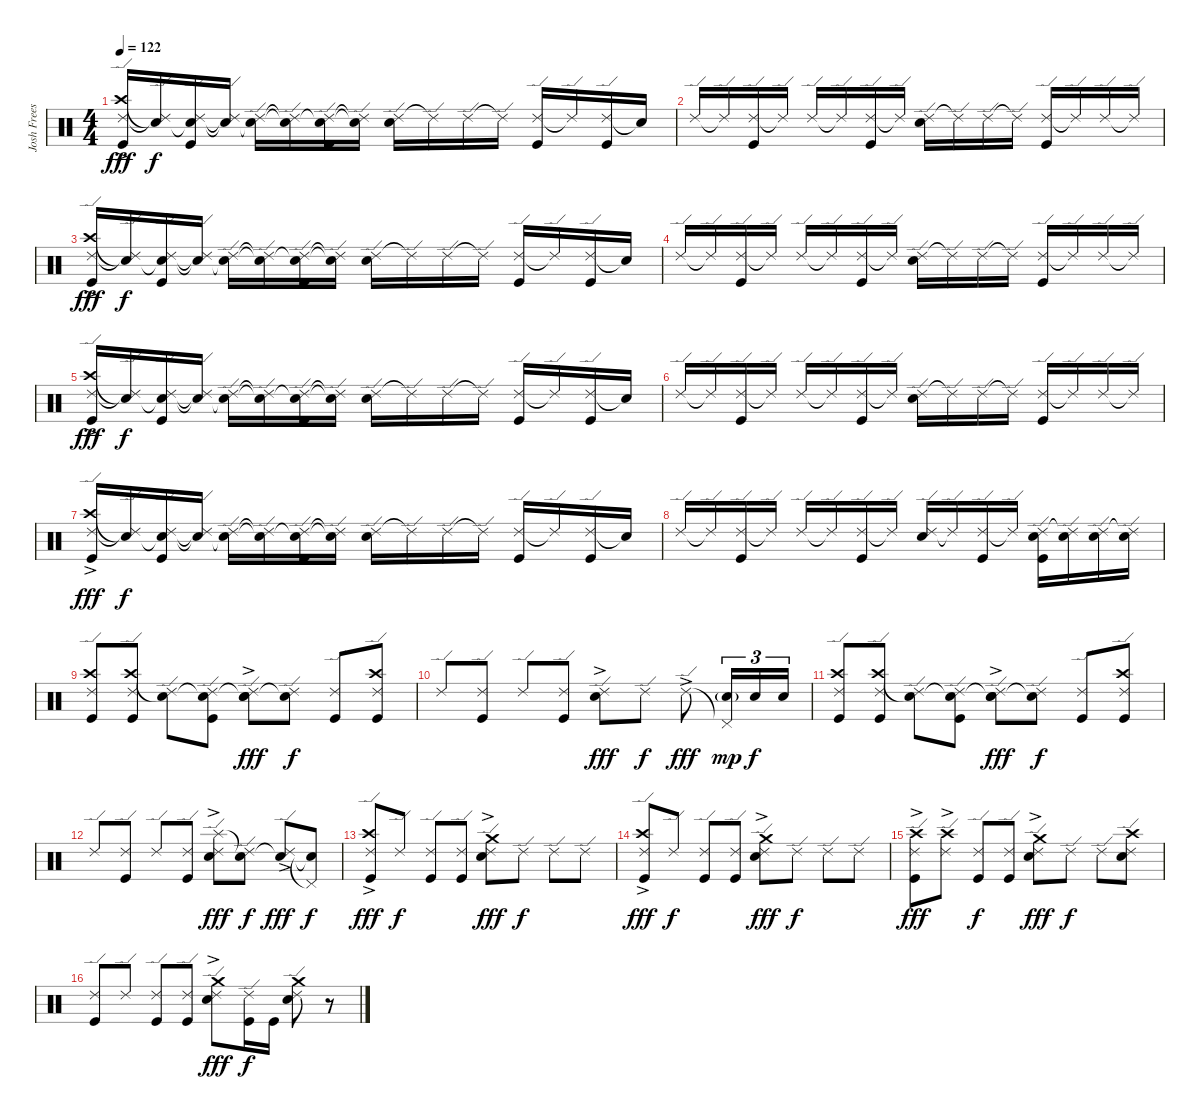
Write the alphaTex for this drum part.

\track ("Josh Freese" "Josh Frees") {instrument percussion}
\staff {score}
\articulation defaults
\ts (4 4)
\tempo 122
\clef neutral
\ks c
("Ride (edge) 2" "Crash high (hit)"{ac} "Kick (hit)").16{dy fff balance 8} ("Ride (edge) 2"{t} "Snare (hit)"{t}).16{dy f} ("Ride (edge) 2" "Snare (hit)"{t} "Kick (hit)").16 ("Ride (edge) 2"{t} "Snare (hit)"{t}).16 ("Ride (edge) 2" "Snare (hit)"{t}).16 ("Ride (edge) 2"{t} "Snare (hit)"{t}).16 ("Ride (edge) 2" "Snare (hit)"{t} "Kick (hit)").16 ("Ride (edge) 2"{t} "Snare (hit)"{t}).16 ("Ride (edge) 2" "Electric Snare (hit)").16 "Ride (edge) 2"{t}.16 "Ride (edge) 2".16 "Ride (edge) 2"{t}.16 ("Ride (edge) 2" "Kick (hit)").16 "Ride (edge) 2"{t}.16 ("Ride (edge) 2" "Kick (hit)").16 "Snare (hit)"{t}.16 |
"Ride (edge) 2".16 "Ride (edge) 2"{t}.16 ("Ride (edge) 2" "Kick (hit)").16 "Ride (edge) 2"{t}.16 "Ride (edge) 2".16 "Ride (edge) 2"{t}.16 ("Ride (edge) 2" "Kick (hit)").16 "Ride (edge) 2"{t}.16 ("Ride (edge) 2" "Electric Snare (hit)").16 "Ride (edge) 2"{t}.16 "Ride (edge) 2".16 "Ride (edge) 2"{t}.16 ("Ride (edge) 2" "Kick (hit)").16 "Ride (edge) 2"{t}.16 "Ride (edge) 2".16 "Ride (edge) 2"{t}.16 |
("Ride (edge) 2" "Crash high (hit)"{ac} "Kick (hit)").16{dy fff balance 8} ("Ride (edge) 2"{t} "Snare (hit)"{t}).16{dy f} ("Ride (edge) 2" "Snare (hit)"{t} "Kick (hit)").16 ("Ride (edge) 2"{t} "Snare (hit)"{t}).16 ("Ride (edge) 2" "Snare (hit)"{t}).16 ("Ride (edge) 2"{t} "Snare (hit)"{t}).16 ("Ride (edge) 2" "Snare (hit)"{t} "Kick (hit)").16 ("Ride (edge) 2"{t} "Snare (hit)"{t}).16 ("Ride (edge) 2" "Electric Snare (hit)").16 "Ride (edge) 2"{t}.16 "Ride (edge) 2".16 "Ride (edge) 2"{t}.16 ("Ride (edge) 2" "Kick (hit)").16 "Ride (edge) 2"{t}.16 ("Ride (edge) 2" "Kick (hit)").16 "Snare (hit)"{t}.16 |
"Ride (edge) 2".16 "Ride (edge) 2"{t}.16 ("Ride (edge) 2" "Kick (hit)").16 "Ride (edge) 2"{t}.16 "Ride (edge) 2".16 "Ride (edge) 2"{t}.16 ("Ride (edge) 2" "Kick (hit)").16 "Ride (edge) 2"{t}.16 ("Ride (edge) 2" "Electric Snare (hit)").16 "Ride (edge) 2"{t}.16 "Ride (edge) 2".16 "Ride (edge) 2"{t}.16 ("Ride (edge) 2" "Kick (hit)").16 "Ride (edge) 2"{t}.16 "Ride (edge) 2".16 "Ride (edge) 2"{t}.16 |
("Ride (edge) 2" "Crash high (hit)"{ac} "Kick (hit)").16{dy fff balance 8} ("Ride (edge) 2"{t} "Snare (hit)"{t}).16{dy f} ("Ride (edge) 2" "Snare (hit)"{t} "Kick (hit)").16 ("Ride (edge) 2"{t} "Snare (hit)"{t}).16 ("Ride (edge) 2" "Snare (hit)"{t}).16 ("Ride (edge) 2"{t} "Snare (hit)"{t}).16 ("Ride (edge) 2" "Snare (hit)"{t} "Kick (hit)").16 ("Ride (edge) 2"{t} "Snare (hit)"{t}).16 ("Ride (edge) 2" "Electric Snare (hit)").16 "Ride (edge) 2"{t}.16 "Ride (edge) 2".16 "Ride (edge) 2"{t}.16 ("Ride (edge) 2" "Kick (hit)").16 "Ride (edge) 2"{t}.16 ("Ride (edge) 2" "Kick (hit)").16 "Snare (hit)"{t}.16 |
"Ride (edge) 2".16 "Ride (edge) 2"{t}.16 ("Ride (edge) 2" "Kick (hit)").16 "Ride (edge) 2"{t}.16 "Ride (edge) 2".16 "Ride (edge) 2"{t}.16 ("Ride (edge) 2" "Kick (hit)").16 "Ride (edge) 2"{t}.16 ("Ride (edge) 2" "Electric Snare (hit)").16 "Ride (edge) 2"{t}.16 "Ride (edge) 2".16 "Ride (edge) 2"{t}.16 ("Ride (edge) 2" "Kick (hit)").16 "Ride (edge) 2"{t}.16 "Ride (edge) 2".16 "Ride (edge) 2"{t}.16 |
("Ride (edge) 2" "Crash high (hit)"{ac} "Kick (hit)").16{dy fff balance 8} ("Ride (edge) 2"{t} "Snare (hit)"{t}).16{dy f} ("Ride (edge) 2" "Snare (hit)"{t} "Kick (hit)").16 ("Ride (edge) 2"{t} "Snare (hit)"{t}).16 ("Ride (edge) 2" "Snare (hit)"{t}).16 ("Ride (edge) 2"{t} "Snare (hit)"{t}).16 ("Ride (edge) 2" "Snare (hit)"{t} "Kick (hit)").16 ("Ride (edge) 2"{t} "Snare (hit)"{t}).16 ("Ride (edge) 2" "Electric Snare (hit)").16 "Ride (edge) 2"{t}.16 "Ride (edge) 2".16 "Ride (edge) 2"{t}.16 ("Ride (edge) 2" "Kick (hit)").16 "Ride (edge) 2"{t}.16 ("Ride (edge) 2" "Kick (hit)").16 "Snare (hit)"{t}.16 |
"Ride (edge) 2".16 "Ride (edge) 2"{t}.16 ("Ride (edge) 2" "Kick (hit)").16 "Ride (edge) 2"{t}.16 "Ride (edge) 2".16 "Ride (edge) 2"{t}.16 ("Ride (edge) 2" "Kick (hit)").16 "Ride (edge) 2"{t}.16 ("Ride (edge) 2" "Electric Snare (hit)").16 "Ride (edge) 2"{t}.16 ("Ride (edge) 2" "Kick (hit)").16 "Ride (edge) 2"{t}.16 ("Ride (edge) 2" "Electric Snare (hit)" "Kick (hit)").16 ("Ride (edge) 2"{t} "Electric Snare (hit)").16 ("Ride (edge) 2" "Electric Snare (hit)").16 ("Ride (edge) 2"{t} "Electric Snare (hit)").16 |
("Ride (edge) 2" "Crash high (hit)" "Kick (hit)").8 ("Ride (edge) 2" "Crash high (hit)" "Kick (hit)").8 ("Ride (edge) 2" "Snare (hit)"{t}).8 ("Ride (edge) 2" "Snare (hit)"{t} "Kick (hit)").8 ("Ride (edge) 2" "Snare (hit)"{t} "Electric Snare (hit)"{ac}).8{dy fff} ("Ride (edge) 2" "Snare (hit)"{t}).8{dy f} ("Ride (edge) 2" "Kick (hit)").8 ("Ride (edge) 2" "Crash high (hit)" "Kick (hit)").8 |
"Ride (edge) 2".8 ("Ride (edge) 2" "Kick (hit)").8 "Ride (edge) 2".8 ("Ride (edge) 2" "Kick (hit)").8 ("Ride (edge) 2" "Electric Snare (hit)"{ac}).8{dy fff} "Ride (edge) 2".8{dy f} "Ride (edge) 2"{ac}.8{dy fff} ("Pedal Hi-Hat (hit)"{t} "Electric Snare (hit)"{g}).16{tu (3 2) dy mp} "Electric Snare (hit)".16{tu (3 2) dy f} "Electric Snare (hit)".16{tu (3 2)} |
("Ride (edge) 2" "Crash high (hit)" "Kick (hit)").8 ("Ride (edge) 2" "Crash high (hit)" "Kick (hit)").8 ("Ride (edge) 2" "Snare (hit)"{t}).8 ("Ride (edge) 2" "Snare (hit)"{t} "Kick (hit)").8 ("Ride (edge) 2" "Snare (hit)"{t} "Electric Snare (hit)"{ac}).8{dy fff} ("Ride (edge) 2" "Snare (hit)"{t}).8{dy f} ("Ride (edge) 2" "Kick (hit)").8 ("Ride (edge) 2" "Crash high (hit)" "Kick (hit)").8 |
"Ride (edge) 2".8 ("Ride (edge) 2" "Kick (hit)").8 "Ride (edge) 2".8 ("Ride (edge) 2" "Kick (hit)").8 ("Ride (edge) 2" "Splash (hit)"{ac} "Electric Snare (hit)").8{dy fff} ("Ride (edge) 2" "Snare (hit)"{t}).8{dy f} ("Ride (edge) 2"{ac} "Snare (hit)"{t}).8{dy fff} ("Pedal Hi-Hat (hit)"{t} "Snare (hit)"{t}).8{dy f} |
("Ride (edge) 2" "Crash high (hit)"{ac} "Kick (hit)").8{dy fff} "Ride (edge) 2".8{dy f} ("Ride (edge) 2" "Kick (hit)").8 ("Ride (edge) 2" "Kick (hit)").8 ("Ride (edge) 2" "Crash medium (hit)"{ac} "Electric Snare (hit)").8{dy fff} "Ride (edge) 2".8{dy f} "Ride (edge) 2".8 "Ride (edge) 2".8 |
("Ride (edge) 2" "Crash high (hit)"{ac} "Kick (hit)").8{dy fff} "Ride (edge) 2".8{dy f} ("Ride (edge) 2" "Kick (hit)").8 ("Ride (edge) 2" "Kick (hit)").8 ("Ride (edge) 2" "Crash medium (hit)"{ac} "Electric Snare (hit)").8{dy fff} "Ride (edge) 2".8{dy f} "Ride (edge) 2".8 "Ride (edge) 2".8 |
("Ride (edge) 2" "Crash high (hit)"{ac} "Kick (hit)").8{dy fff} ("Ride (edge) 2" "Crash high (hit)"{ac}).8 ("Ride (edge) 2" "Kick (hit)").8{dy f} ("Ride (edge) 2" "Kick (hit)").8 ("Ride (edge) 2" "Crash medium (hit)"{ac} "Electric Snare (hit)").8{dy fff} "Ride (edge) 2".8{dy f} "Ride (edge) 2".8 ("Ride (edge) 2" "Crash high (hit)" "Electric Snare (hit)").8 |
("Ride (edge) 2" "Kick (hit)").8 "Ride (edge) 2".8 ("Ride (edge) 2" "Kick (hit)").8 ("Ride (edge) 2" "Kick (hit)").8 ("Ride (edge) 2" "Crash medium (hit)"{ac} "Electric Snare (hit)").8{dy fff} ("Ride (edge) 2" "Kick (hit)").16{dy f} "Kick (hit)".16 ("Ride (edge) 2" "Crash medium (hit)" "Electric Snare (hit)").8 r.8
